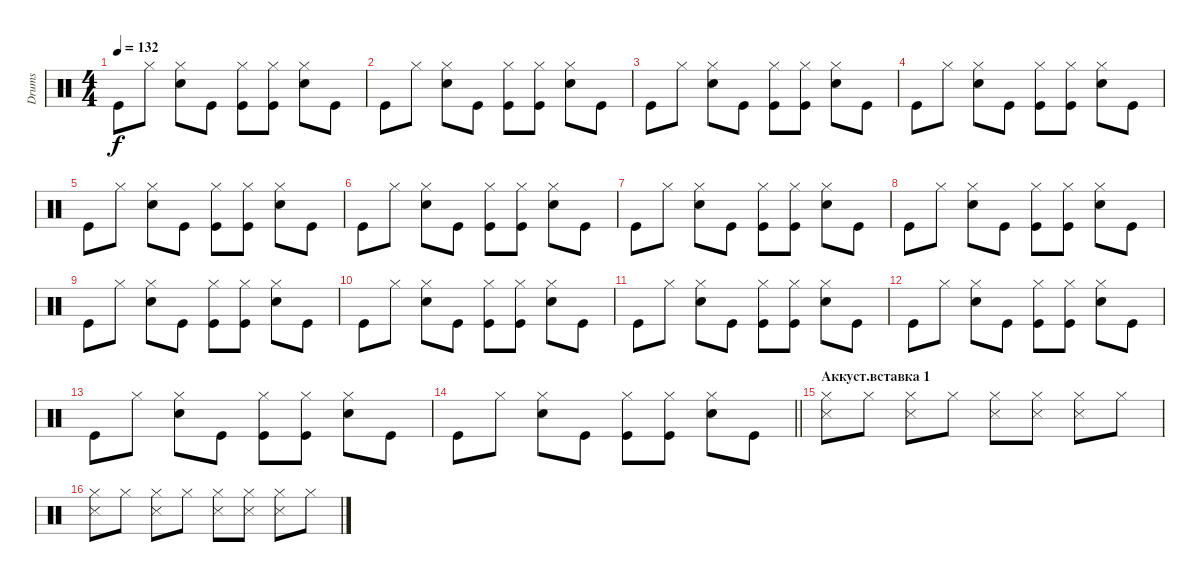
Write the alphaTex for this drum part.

\track ("Drums" "Drums") {instrument percussion}
\staff {score}
\articulation defaults
\ts (4 4)
\tempo 132
\clef neutral
\ks c "Kick (hit)".8{dy f} "Hi-Hat (closed)".8
("Hi-Hat (closed)" "Snare (hit) 2").8 "Kick (hit)".8 ("Hi-Hat (closed)" "Kick (hit)").8 ("Hi-Hat (closed)" "Kick (hit)").8 ("Hi-Hat (closed)" "Snare (hit) 2").8 "Kick (hit)".8 |
"Kick (hit)".8 "Hi-Hat (closed)".8 ("Hi-Hat (closed)" "Snare (hit) 2").8 "Kick (hit)".8 ("Hi-Hat (closed)" "Kick (hit)").8 ("Hi-Hat (closed)" "Kick (hit)").8 ("Hi-Hat (closed)" "Snare (hit) 2").8 "Kick (hit)".8 |
"Kick (hit)".8 "Hi-Hat (closed)".8 ("Hi-Hat (closed)" "Snare (hit) 2").8 "Kick (hit)".8 ("Hi-Hat (closed)" "Kick (hit)").8 ("Hi-Hat (closed)" "Kick (hit)").8 ("Hi-Hat (closed)" "Snare (hit) 2").8 "Kick (hit)".8 |
"Kick (hit)".8 "Hi-Hat (closed)".8 ("Hi-Hat (closed)" "Snare (hit) 2").8 "Kick (hit)".8 ("Hi-Hat (closed)" "Kick (hit)").8 ("Hi-Hat (closed)" "Kick (hit)").8 ("Hi-Hat (closed)" "Snare (hit) 2").8 "Kick (hit)".8 |
"Kick (hit)".8 "Hi-Hat (closed)".8 ("Hi-Hat (closed)" "Snare (hit) 2").8 "Kick (hit)".8 ("Hi-Hat (closed)" "Kick (hit)").8 ("Hi-Hat (closed)" "Kick (hit)").8 ("Hi-Hat (closed)" "Snare (hit) 2").8 "Kick (hit)".8 |
"Kick (hit)".8 "Hi-Hat (closed)".8 ("Hi-Hat (closed)" "Snare (hit) 2").8 "Kick (hit)".8 ("Hi-Hat (closed)" "Kick (hit)").8 ("Hi-Hat (closed)" "Kick (hit)").8 ("Hi-Hat (closed)" "Snare (hit) 2").8 "Kick (hit)".8 |
"Kick (hit)".8 "Hi-Hat (closed)".8 ("Hi-Hat (closed)" "Snare (hit) 2").8 "Kick (hit)".8 ("Hi-Hat (closed)" "Kick (hit)").8 ("Hi-Hat (closed)" "Kick (hit)").8 ("Hi-Hat (closed)" "Snare (hit) 2").8 "Kick (hit)".8 |
"Kick (hit)".8 "Hi-Hat (closed)".8 ("Hi-Hat (closed)" "Snare (hit) 2").8 "Kick (hit)".8 ("Hi-Hat (closed)" "Kick (hit)").8 ("Hi-Hat (closed)" "Kick (hit)").8 ("Hi-Hat (closed)" "Snare (hit) 2").8 "Kick (hit)".8 |
"Kick (hit)".8 "Hi-Hat (closed)".8 ("Hi-Hat (closed)" "Snare (hit) 2").8 "Kick (hit)".8 ("Hi-Hat (closed)" "Kick (hit)").8 ("Hi-Hat (closed)" "Kick (hit)").8 ("Hi-Hat (closed)" "Snare (hit) 2").8 "Kick (hit)".8 |
"Kick (hit)".8 "Hi-Hat (closed)".8 ("Hi-Hat (closed)" "Snare (hit) 2").8 "Kick (hit)".8 ("Hi-Hat (closed)" "Kick (hit)").8 ("Hi-Hat (closed)" "Kick (hit)").8 ("Hi-Hat (closed)" "Snare (hit) 2").8 "Kick (hit)".8 |
"Kick (hit)".8 "Hi-Hat (closed)".8 ("Hi-Hat (closed)" "Snare (hit) 2").8 "Kick (hit)".8 ("Hi-Hat (closed)" "Kick (hit)").8 ("Hi-Hat (closed)" "Kick (hit)").8 ("Hi-Hat (closed)" "Snare (hit) 2").8 "Kick (hit)".8 |
"Kick (hit)".8 "Hi-Hat (closed)".8 ("Hi-Hat (closed)" "Snare (hit) 2").8 "Kick (hit)".8 ("Hi-Hat (closed)" "Kick (hit)").8 ("Hi-Hat (closed)" "Kick (hit)").8 ("Hi-Hat (closed)" "Snare (hit) 2").8 "Kick (hit)".8 |
"Kick (hit)".8 "Hi-Hat (closed)".8 ("Hi-Hat (closed)" "Snare (hit) 2").8 "Kick (hit)".8 ("Hi-Hat (closed)" "Kick (hit)").8 ("Hi-Hat (closed)" "Kick (hit)").8 ("Hi-Hat (closed)" "Snare (hit) 2").8 "Kick (hit)".8 |
\barLineRight lightlight "Kick (hit)".8 "Hi-Hat (closed)".8
("Hi-Hat (closed)" "Snare (hit) 2").8 "Kick (hit)".8 ("Hi-Hat (closed)" "Kick (hit)").8 ("Hi-Hat (closed)" "Kick (hit)").8 ("Hi-Hat (closed)" "Snare (hit) 2").8 "Kick (hit)".8 |
\section ("" "Аккуст.вставка 1")
("Snare (side stick) 3" "Hi-Hat (closed)").8 "Hi-Hat (closed)".8 ("Snare (side stick) 3" "Hi-Hat (closed)").8 "Hi-Hat (closed)".8 ("Snare (side stick) 3" "Hi-Hat (closed)").8 ("Snare (side stick) 3" "Hi-Hat (closed)").8 ("Snare (side stick) 3" "Hi-Hat (closed)").8 "Hi-Hat (closed)".8 |
("Snare (side stick) 3" "Hi-Hat (closed)").8 "Hi-Hat (closed)".8 ("Snare (side stick) 3" "Hi-Hat (closed)").8 "Hi-Hat (closed)".8 ("Snare (side stick) 3" "Hi-Hat (closed)").8 ("Snare (side stick) 3" "Hi-Hat (closed)").8 ("Snare (side stick) 3" "Hi-Hat (closed)").8 "Hi-Hat (closed)".8
